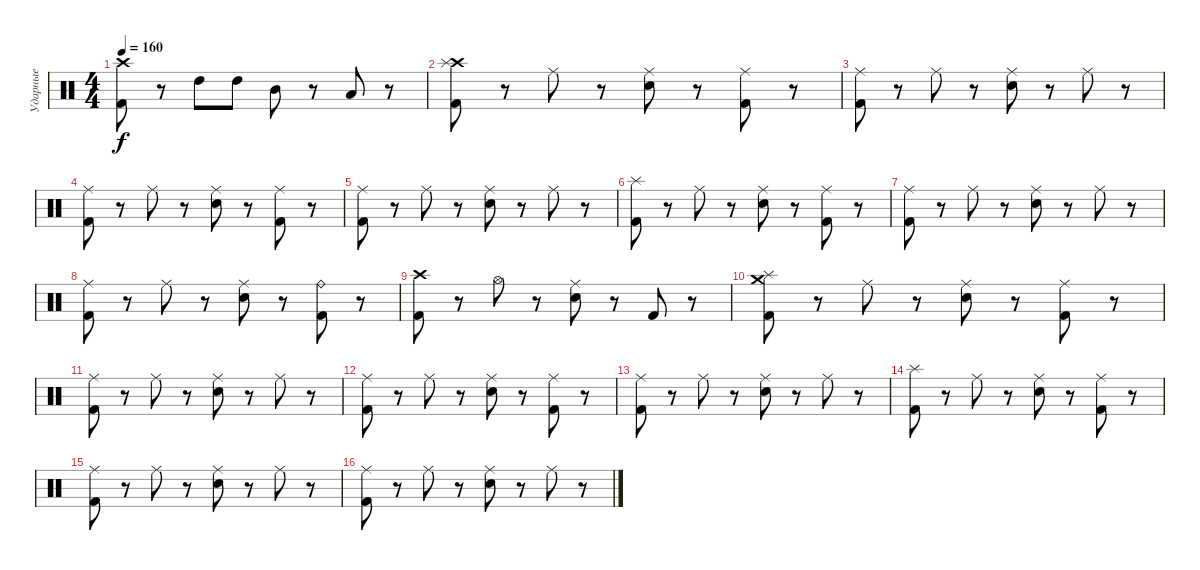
\track ("Ударные" "Ударные") {instrument percussion}
\staff {score}
\articulation defaults
\ts (4 4)
\tempo 160
\clef neutral
\ks c
("Kick (hit) 2" "Crash high (hit)").8{dy f} r.8 "High Tom (hit)".8 "High Tom (hit)".8 "Mid Tom (hit)".8 r.8 "Low Tom (hit)".8 r.8 |
("Kick (hit) 2" "Crash high (hit)" "Splash (hit)").8 r.8 "Ride (middle)".8 r.8 ("Electric Snare (hit)" "Ride (middle)").8 r.8 ("Kick (hit) 2" "Ride (middle)").8 r.8 |
("Kick (hit) 2" "Ride (middle)").8 r.8 "Ride (middle)".8 r.8 ("Electric Snare (hit)" "Ride (middle)").8 r.8 "Ride (middle)".8 r.8 |
("Kick (hit) 2" "Ride (middle)").8 r.8 "Ride (middle)".8 r.8 ("Electric Snare (hit)" "Ride (middle)").8 r.8 ("Kick (hit) 2" "Ride (middle)").8 r.8 |
("Kick (hit) 2" "Ride (middle)").8 r.8 "Ride (middle)".8 r.8 ("Electric Snare (hit)" "Ride (middle)").8 r.8 "Ride (middle)".8 r.8 |
("Kick (hit) 2" "Splash (hit)").8 r.8 "Ride (middle)".8 r.8 ("Electric Snare (hit)" "Ride (middle)").8 r.8 ("Kick (hit) 2" "Ride (middle)").8 r.8 |
("Kick (hit) 2" "Ride (middle)").8 r.8 "Ride (middle)".8 r.8 ("Electric Snare (hit)" "Ride (middle)").8 r.8 "Ride (middle)".8 r.8 |
("Kick (hit) 2" "Ride (middle)").8 r.8 "Ride (middle)".8 r.8 ("Electric Snare (hit)" "Ride (middle)").8 r.8 ("Kick (hit) 2" "Ride (bell)").8 r.8 |
("Kick (hit) 2" "Crash high (hit)").8 r.8 "Hi-Hat (open)".8 r.8 ("Electric Snare (hit)" "Ride (middle)").8 r.8 "Kick (hit) 2".8 r.8 |
("Kick (hit) 2" "Crash medium (hit)" "Splash (hit)").8 r.8 "Ride (middle)".8 r.8 ("Electric Snare (hit)" "Ride (middle)").8 r.8 ("Kick (hit) 2" "Ride (middle)").8 r.8 |
("Kick (hit) 2" "Ride (middle)").8 r.8 "Ride (middle)".8 r.8 ("Electric Snare (hit)" "Ride (middle)").8 r.8 "Ride (middle)".8 r.8 |
("Kick (hit) 2" "Ride (middle)").8 r.8 "Ride (middle)".8 r.8 ("Electric Snare (hit)" "Ride (middle)").8 r.8 ("Kick (hit) 2" "Ride (middle)").8 r.8 |
("Kick (hit) 2" "Ride (middle)").8 r.8 "Ride (middle)".8 r.8 ("Electric Snare (hit)" "Ride (middle)").8 r.8 "Ride (middle)".8 r.8 |
("Kick (hit) 2" "Splash (hit)").8 r.8 "Ride (middle)".8 r.8 ("Electric Snare (hit)" "Ride (middle)").8 r.8 ("Kick (hit) 2" "Ride (middle)").8 r.8 |
("Kick (hit) 2" "Ride (middle)").8 r.8 "Ride (middle)".8 r.8 ("Electric Snare (hit)" "Ride (middle)").8 r.8 "Ride (middle)".8 r.8 |
("Kick (hit) 2" "Ride (middle)").8 r.8 "Ride (middle)".8 r.8 ("Electric Snare (hit)" "Ride (middle)").8 r.8 "Ride (middle)".8 r.8
